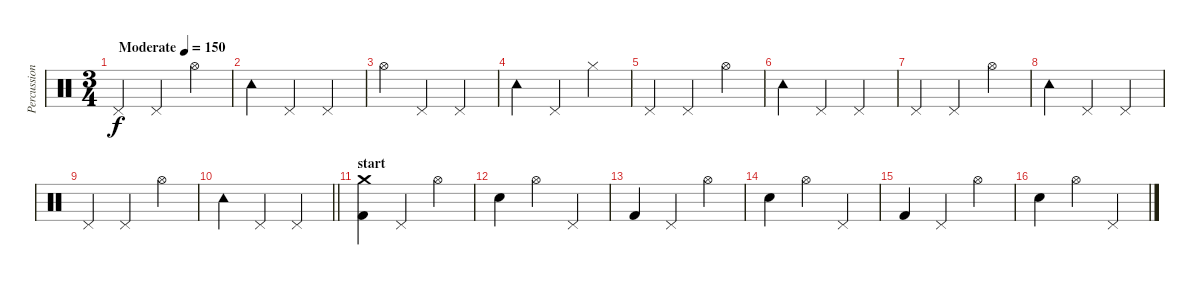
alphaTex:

\track ("Percussion" "Percussion") {instrument percussion}
\staff {score}
\articulation defaults
\ts (3 4)
\tempo (150 "Moderate")
\clef neutral
\ks c "Pedal Hi-Hat (hit)".4{dy f} "Pedal Hi-Hat (hit)".4 "Hi-Hat (open)".4
|
"Tambourine (hit)".4 "Pedal Hi-Hat (hit)".4 "Pedal Hi-Hat (hit)".4 |
"Hi-Hat (open)".4 "Pedal Hi-Hat (hit)".4 "Pedal Hi-Hat (hit)".4 |
"Tambourine (hit)".4 "Pedal Hi-Hat (hit)".4 "Hi-Hat (closed)".4 |
"Pedal Hi-Hat (hit)".4 "Pedal Hi-Hat (hit)".4 "Hi-Hat (open)".4 |
"Tambourine (hit)".4 "Pedal Hi-Hat (hit)".4 "Pedal Hi-Hat (hit)".4 |
"Pedal Hi-Hat (hit)".4 "Pedal Hi-Hat (hit)".4 "Hi-Hat (open)".4 |
"Tambourine (hit)".4 "Pedal Hi-Hat (hit)".4 "Pedal Hi-Hat (hit)".4 |
"Pedal Hi-Hat (hit)".4 "Pedal Hi-Hat (hit)".4 "Hi-Hat (open)".4 |
\barLineRight lightlight "Tambourine (hit)".4 "Pedal Hi-Hat (hit)".4 "Pedal Hi-Hat (hit)".4
|
\section ("" "start")
("Kick (hit) 2" "Crash medium (hit)").4 "Pedal Hi-Hat (hit)".4 "Hi-Hat (open)".4 |
"Snare (hit) 2".4 "Hi-Hat (open)".4 "Pedal Hi-Hat (hit)".4 |
"Kick (hit) 2".4 "Pedal Hi-Hat (hit)".4 "Hi-Hat (open)".4 |
"Snare (hit) 2".4 "Hi-Hat (open)".4 "Pedal Hi-Hat (hit)".4 |
"Kick (hit) 2".4 "Pedal Hi-Hat (hit)".4 "Hi-Hat (open)".4 |
"Snare (hit) 2".4 "Hi-Hat (open)".4 "Pedal Hi-Hat (hit)".4
